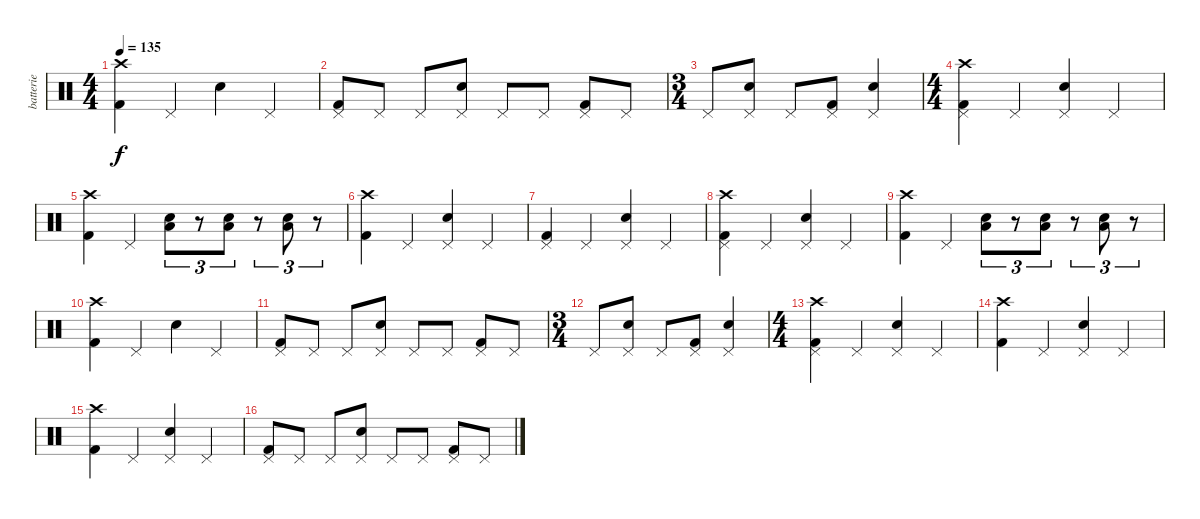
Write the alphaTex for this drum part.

\track ("batterie" "batterie") {instrument percussion}
\staff {score}
\articulation defaults
\ts (4 4)
\tempo 135
\clef neutral
\ks c
("Crash high (hit)" "Kick (hit) 2").4{dy f} "Pedal Hi-Hat (hit)".4 "Snare (hit) 2".4 "Pedal Hi-Hat (hit)".4 |
("Kick (hit) 2" "Pedal Hi-Hat (hit)").8 "Pedal Hi-Hat (hit)".8 "Pedal Hi-Hat (hit)".8 ("Snare (hit) 2" "Pedal Hi-Hat (hit)").8 "Pedal Hi-Hat (hit)".8 "Pedal Hi-Hat (hit)".8 ("Kick (hit) 2" "Pedal Hi-Hat (hit)").8 "Pedal Hi-Hat (hit)".8 |
\ts (3 4)
"Pedal Hi-Hat (hit)".8 ("Snare (hit) 2" "Pedal Hi-Hat (hit)").8 "Pedal Hi-Hat (hit)".8 ("Kick (hit) 2" "Pedal Hi-Hat (hit)").8 ("Snare (hit) 2" "Pedal Hi-Hat (hit)").4 |
\ts (4 4)
("Crash high (hit)" "Kick (hit) 2" "Pedal Hi-Hat (hit)").4 "Pedal Hi-Hat (hit)".4 ("Snare (hit) 2" "Pedal Hi-Hat (hit)").4 "Pedal Hi-Hat (hit)".4 |
("Crash high (hit)" "Kick (hit) 2").4 "Pedal Hi-Hat (hit)".4 ("Low Tom (hit)" "Snare (hit) 2").8{tu (3 2)} r.8{tu (3 2)} ("Low Tom (hit)" "Snare (hit) 2").8{tu (3 2)} r.8{tu (3 2)} ("Low Tom (hit)" "Snare (hit) 2").8{tu (3 2)} r.8{tu (3 2)} |
("Crash high (hit)" "Kick (hit) 2").4 "Pedal Hi-Hat (hit)".4 ("Snare (hit) 2" "Pedal Hi-Hat (hit)").4 "Pedal Hi-Hat (hit)".4 |
("Kick (hit) 2" "Pedal Hi-Hat (hit)").4 "Pedal Hi-Hat (hit)".4 ("Snare (hit) 2" "Pedal Hi-Hat (hit)").4 "Pedal Hi-Hat (hit)".4 |
("Crash high (hit)" "Kick (hit) 2" "Pedal Hi-Hat (hit)").4 "Pedal Hi-Hat (hit)".4 ("Snare (hit) 2" "Pedal Hi-Hat (hit)").4 "Pedal Hi-Hat (hit)".4 |
("Crash high (hit)" "Kick (hit) 2").4 "Pedal Hi-Hat (hit)".4 ("Low Tom (hit)" "Snare (hit) 2").8{tu (3 2)} r.8{tu (3 2)} ("Low Tom (hit)" "Snare (hit) 2").8{tu (3 2)} r.8{tu (3 2)} ("Low Tom (hit)" "Snare (hit) 2").8{tu (3 2)} r.8{tu (3 2)} |
("Crash high (hit)" "Kick (hit) 2").4 "Pedal Hi-Hat (hit)".4 "Snare (hit) 2".4 "Pedal Hi-Hat (hit)".4 |
("Kick (hit) 2" "Pedal Hi-Hat (hit)").8 "Pedal Hi-Hat (hit)".8 "Pedal Hi-Hat (hit)".8 ("Snare (hit) 2" "Pedal Hi-Hat (hit)").8 "Pedal Hi-Hat (hit)".8 "Pedal Hi-Hat (hit)".8 ("Kick (hit) 2" "Pedal Hi-Hat (hit)").8 "Pedal Hi-Hat (hit)".8 |
\ts (3 4)
"Pedal Hi-Hat (hit)".8 ("Snare (hit) 2" "Pedal Hi-Hat (hit)").8 "Pedal Hi-Hat (hit)".8 ("Kick (hit) 2" "Pedal Hi-Hat (hit)").8 ("Snare (hit) 2" "Pedal Hi-Hat (hit)").4 |
\ts (4 4)
("Crash high (hit)" "Kick (hit) 2" "Pedal Hi-Hat (hit)").4 "Pedal Hi-Hat (hit)".4 ("Snare (hit) 2" "Pedal Hi-Hat (hit)").4 "Pedal Hi-Hat (hit)".4 |
("Crash high (hit)" "Kick (hit) 2").4 "Pedal Hi-Hat (hit)".4 ("Snare (hit) 2" "Pedal Hi-Hat (hit)").4 "Pedal Hi-Hat (hit)".4 |
("Crash high (hit)" "Kick (hit) 2").4 "Pedal Hi-Hat (hit)".4 ("Snare (hit) 2" "Pedal Hi-Hat (hit)").4 "Pedal Hi-Hat (hit)".4 |
("Kick (hit) 2" "Pedal Hi-Hat (hit)").8 "Pedal Hi-Hat (hit)".8 "Pedal Hi-Hat (hit)".8 ("Snare (hit) 2" "Pedal Hi-Hat (hit)").8 "Pedal Hi-Hat (hit)".8 "Pedal Hi-Hat (hit)".8 ("Kick (hit) 2" "Pedal Hi-Hat (hit)").8 "Pedal Hi-Hat (hit)".8
